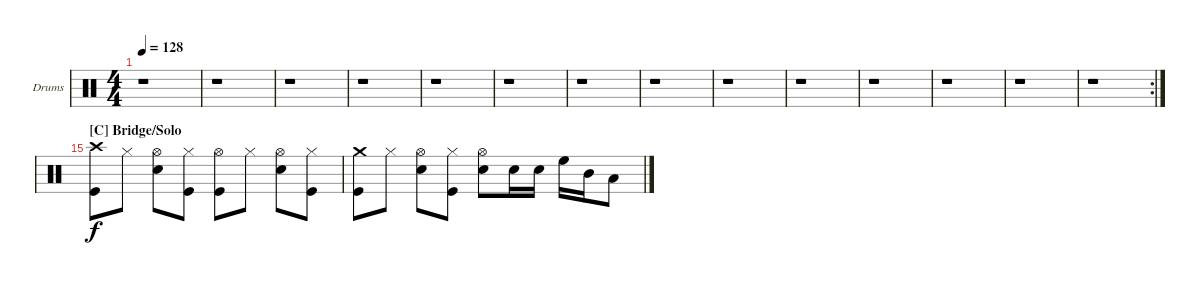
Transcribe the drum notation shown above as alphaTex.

\bracketExtendMode nobrackets
\firstSystemTrackNameOrientation horizontal
\otherSystemsTrackNameOrientation horizontal
\defaultBarNumberDisplay FirstOfSystem
\track ("Drumkit" "Drums") {instrument percussion}
\staff {score}
\articulation defaults
\ts (4 4)
\tempo 128
\clef neutral
\ks c
r.1{dy f} |
r.1 |
r.1 |
r.1 |
r.1 |
r.1 |
r.1 |
r.1 |
r.1 |
r.1 |
r.1 |
r.1 |
r.1 |
\rc 2
r.1 |
\section ("C" "Bridge/Solo")
\scale
0.243697 ("Kick (hit)" "Crash high (hit)").8 "Hi-Hat (closed)".8 ("Hi-Hat (open)" "Snare (hit) 2").8 ("Hi-Hat (closed)" "Kick (hit)").8 ("Hi-Hat (open)" "Kick (hit)").8 "Hi-Hat (closed)".8 ("Snare (hit) 2" "Hi-Hat (open)").8 ("Kick (hit)" "Hi-Hat (closed)").8 |
\scale
0.243697 ("Kick (hit)" "Crash medium (hit)").8 "Hi-Hat (closed)".8 ("Hi-Hat (open)" "Snare (hit) 2").8 ("Hi-Hat (closed)" "Kick (hit)").8 ("Hi-Hat (open)" "Snare (hit) 2").8 "Snare (hit) 2".16 "Snare (hit) 2".16 "High Floor Tom (hit)".16 "Mid Tom (hit)".16 "Low Tom (hit)".8
